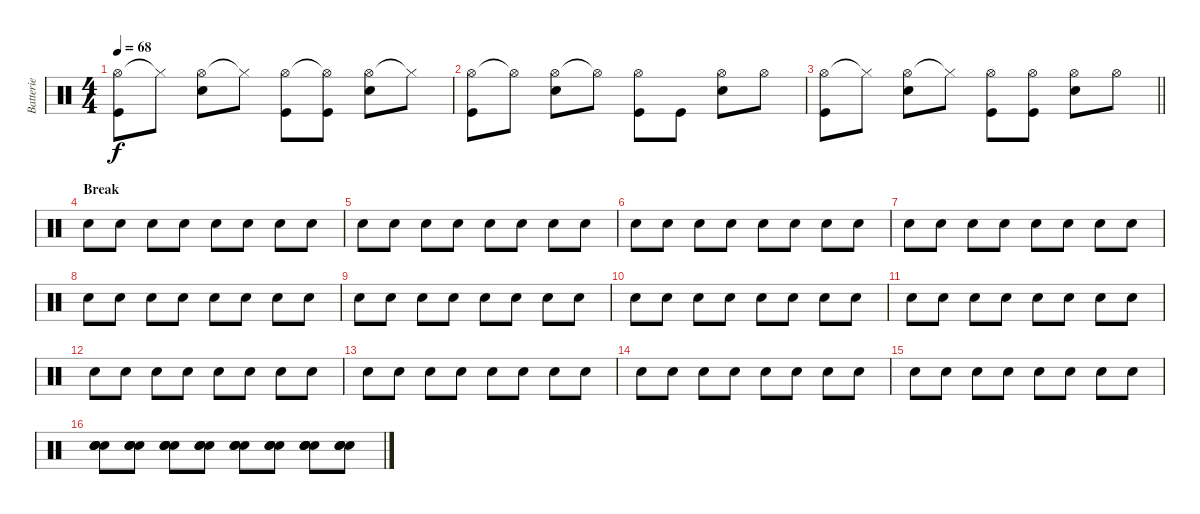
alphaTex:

\track ("Batterie" "Batterie") {instrument percussion}
\staff {score}
\articulation defaults
\ts (4 4)
\tempo 68
\clef neutral
\ks c
("Hi-Hat (open)" "Kick (hit)").8{dy f} "Hi-Hat (closed)"{t}.8 ("Hi-Hat (open)" "Snare (hit) 2").8 "Hi-Hat (closed)"{t}.8 ("Hi-Hat (open)" "Kick (hit)").8 ("Hi-Hat (open)"{t} "Kick (hit)").8 ("Hi-Hat (open)" "Snare (hit) 2").8 "Hi-Hat (closed)"{t}.8 |
("Hi-Hat (open)" "Kick (hit)").8 "Hi-Hat (open)"{t}.8 ("Hi-Hat (open)" "Snare (hit) 2").8 "Hi-Hat (open)"{t}.8 ("Hi-Hat (open)" "Kick (hit)").8 "Kick (hit)".8 ("Hi-Hat (open)" "Snare (hit) 2").8 "Hi-Hat (open)".8 |
\barLineRight lightlight
("Hi-Hat (open)" "Kick (hit)").8 "Hi-Hat (closed)"{t}.8 ("Hi-Hat (open)" "Snare (hit) 2").8 "Hi-Hat (closed)"{t}.8 ("Hi-Hat (open)" "Kick (hit)").8 ("Hi-Hat (open)" "Kick (hit)").8 ("Hi-Hat (open)" "Snare (hit) 2").8 "Hi-Hat (open)".8 |
\section ("" "Break")
"Snare (hit) 2".8{volume 5} "Snare (hit) 2".8 "Snare (hit) 2".8 "Snare (hit) 2".8 "Snare (hit) 2".8 "Snare (hit) 2".8 "Snare (hit) 2".8 "Snare (hit) 2".8 |
"Snare (hit) 2".8{volume 12} "Snare (hit) 2".8 "Snare (hit) 2".8 "Snare (hit) 2".8 "Snare (hit) 2".8 "Snare (hit) 2".8 "Snare (hit) 2".8 "Snare (hit) 2".8 |
"Snare (hit) 2".8 "Snare (hit) 2".8 "Snare (hit) 2".8 "Snare (hit) 2".8 "Snare (hit) 2".8 "Snare (hit) 2".8 "Snare (hit) 2".8 "Snare (hit) 2".8 |
"Snare (hit) 2".8 "Snare (hit) 2".8 "Snare (hit) 2".8 "Snare (hit) 2".8 "Snare (hit) 2".8 "Snare (hit) 2".8 "Snare (hit) 2".8 "Snare (hit) 2".8 |
"Snare (hit) 2".8{volume 11} "Snare (hit) 2".8 "Snare (hit) 2".8 "Snare (hit) 2".8 "Snare (hit) 2".8 "Snare (hit) 2".8 "Snare (hit) 2".8 "Snare (hit) 2".8 |
"Snare (hit) 2".8{volume 16} "Snare (hit) 2".8 "Snare (hit) 2".8 "Snare (hit) 2".8 "Snare (hit) 2".8 "Snare (hit) 2".8 "Snare (hit) 2".8 "Snare (hit) 2".8 |
"Snare (hit) 2".8 "Snare (hit) 2".8 "Snare (hit) 2".8 "Snare (hit) 2".8 "Snare (hit) 2".8 "Snare (hit) 2".8 "Snare (hit) 2".8 "Snare (hit) 2".8 |
"Snare (hit) 2".8 "Snare (hit) 2".8 "Snare (hit) 2".8 "Snare (hit) 2".8 "Snare (hit) 2".8 "Snare (hit) 2".8 "Snare (hit) 2".8 "Snare (hit) 2".8 |
"Snare (hit) 2".8 "Snare (hit) 2".8 "Snare (hit) 2".8 "Snare (hit) 2".8 "Snare (hit) 2".8 "Snare (hit) 2".8 "Snare (hit) 2".8 "Snare (hit) 2".8 |
"Snare (hit) 2".8 "Snare (hit) 2".8 "Snare (hit) 2".8 "Snare (hit) 2".8 "Snare (hit) 2".8 "Snare (hit) 2".8 "Snare (hit) 2".8 "Snare (hit) 2".8 |
"Snare (hit) 2".8 "Snare (hit) 2".8 "Snare (hit) 2".8 "Snare (hit) 2".8 "Snare (hit) 2".8 "Snare (hit) 2".8 "Snare (hit) 2".8 "Snare (hit) 2".8 |
"Snare (hit) 2".8 "Snare (hit) 2".8 "Snare (hit) 2".8 "Snare (hit) 2".8 "Snare (hit) 2".8 "Snare (hit) 2".8 "Snare (hit) 2".8 "Snare (hit) 2".8 |
("Snare (hit) 2" "Snare (hit) 2" "Snare (hit) 2" "Snare (hit) 2").8{volume 16} ("Snare (hit) 2" "Snare (hit) 2" "Snare (hit) 2" "Snare (hit) 2").8 ("Snare (hit) 2" "Snare (hit) 2" "Snare (hit) 2" "Snare (hit) 2").8 ("Snare (hit) 2" "Snare (hit) 2" "Snare (hit) 2" "Snare (hit) 2").8 ("Snare (hit) 2" "Snare (hit) 2" "Snare (hit) 2" "Snare (hit) 2").8 ("Snare (hit) 2" "Snare (hit) 2" "Snare (hit) 2" "Snare (hit) 2").8 ("Snare (hit) 2" "Snare (hit) 2" "Snare (hit) 2" "Snare (hit) 2").8 ("Snare (hit) 2" "Snare (hit) 2" "Snare (hit) 2" "Snare (hit) 2").8
